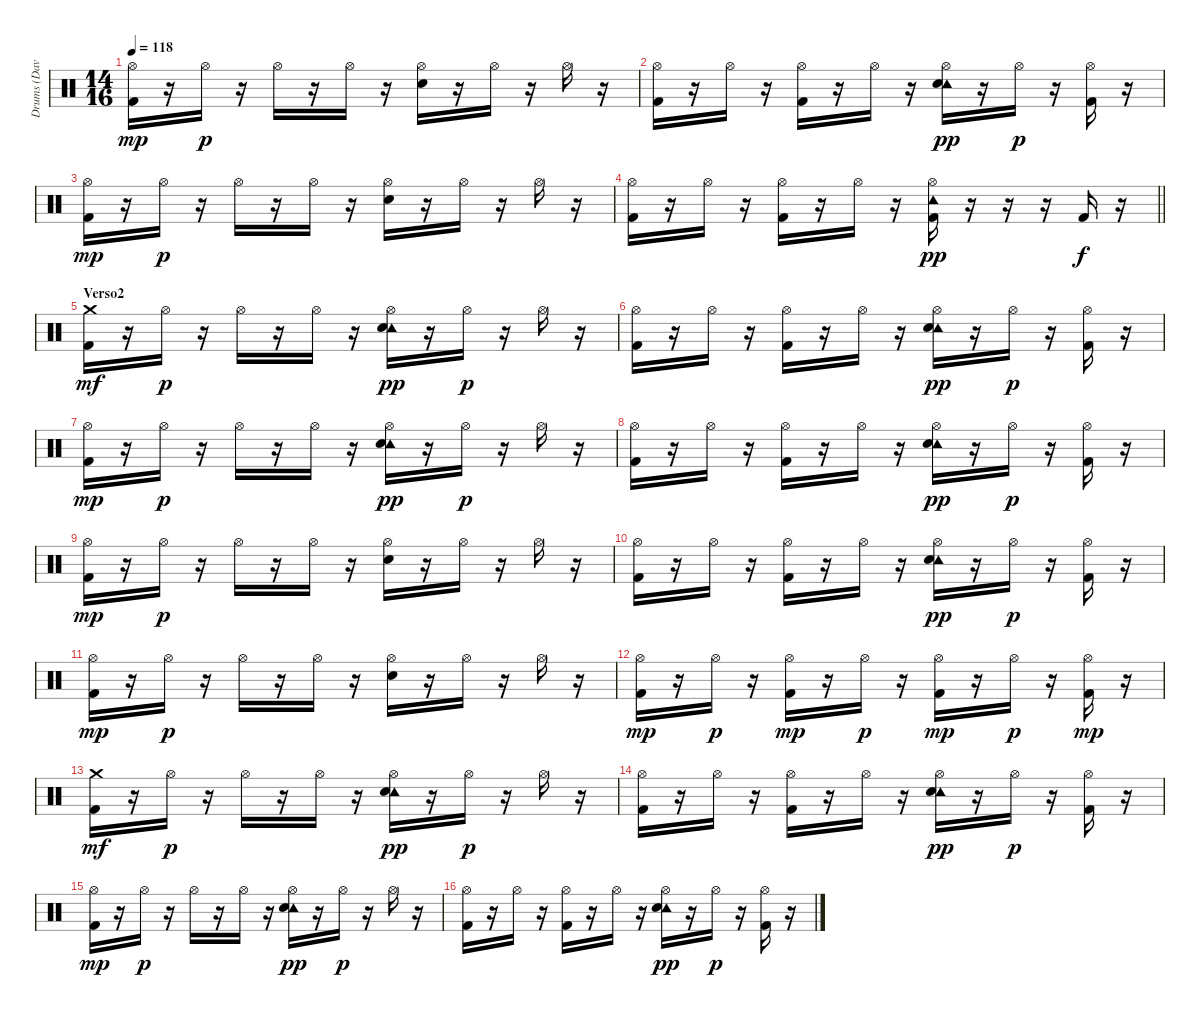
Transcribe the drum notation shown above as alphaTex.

\track ("Drums (Dave Turncrantz)" "Drums (Dav") {instrument percussion}
\staff {score}
\articulation defaults
\ts (14 16)
\tempo 118
\clef neutral
\ks c
("Hi-Hat (open)" "Kick (hit) 2").16{dy mp} r.16 "Hi-Hat (open)".16{dy p} r.16 "Hi-Hat (open)".16 r.16 "Hi-Hat (open)".16 r.16 ("Hi-Hat (open)" "Snare (hit) 2").16 r.16 "Hi-Hat (open)".16 r.16 "Hi-Hat (open)".16 r.16 |
("Hi-Hat (open)" "Kick (hit) 2").16 r.16 "Hi-Hat (open)".16 r.16 ("Hi-Hat (open)" "Kick (hit) 2").16 r.16 "Hi-Hat (open)".16 r.16 ("Hi-Hat (open)" "Tambourine (hit)" "Snare (hit) 2").16{dy pp} r.16 "Hi-Hat (open)".16{dy p} r.16 ("Hi-Hat (open)" "Kick (hit) 2").16 r.16 |
("Hi-Hat (open)" "Kick (hit) 2").16{dy mp} r.16 "Hi-Hat (open)".16{dy p} r.16 "Hi-Hat (open)".16 r.16 "Hi-Hat (open)".16 r.16 ("Hi-Hat (open)" "Snare (hit) 2").16 r.16 "Hi-Hat (open)".16 r.16 "Hi-Hat (open)".16 r.16 |
\barLineRight lightlight
("Hi-Hat (open)" "Kick (hit) 2").16 r.16 "Hi-Hat (open)".16 r.16 ("Hi-Hat (open)" "Kick (hit) 2").16 r.16 "Hi-Hat (open)".16 r.16 ("Hi-Hat (open)" "Tambourine (hit)" "Kick (hit) 2").16{dy pp} r.16 r.16 r.16 "Kick (hit) 2".16{dy f} r.16 |
\section ("" "Verso2")
("Crash medium (hit)" "Kick (hit) 2").16{dy mf} r.16 "Hi-Hat (open)".16{dy p} r.16 "Hi-Hat (open)".16 r.16 "Hi-Hat (open)".16 r.16 ("Hi-Hat (open)" "Tambourine (hit)" "Snare (hit) 2").16{dy pp} r.16 "Hi-Hat (open)".16{dy p} r.16 "Hi-Hat (open)".16 r.16 |
("Hi-Hat (open)" "Kick (hit) 2").16 r.16 "Hi-Hat (open)".16 r.16 ("Hi-Hat (open)" "Kick (hit) 2").16 r.16 "Hi-Hat (open)".16 r.16 ("Hi-Hat (open)" "Tambourine (hit)" "Snare (hit) 2").16{dy pp} r.16 "Hi-Hat (open)".16{dy p} r.16 ("Hi-Hat (open)" "Kick (hit) 2").16 r.16 |
("Hi-Hat (open)" "Kick (hit) 2").16{dy mp} r.16 "Hi-Hat (open)".16{dy p} r.16 "Hi-Hat (open)".16 r.16 "Hi-Hat (open)".16 r.16 ("Hi-Hat (open)" "Tambourine (hit)" "Snare (hit) 2").16{dy pp} r.16 "Hi-Hat (open)".16{dy p} r.16 "Hi-Hat (open)".16 r.16 |
("Hi-Hat (open)" "Kick (hit) 2").16 r.16 "Hi-Hat (open)".16 r.16 ("Hi-Hat (open)" "Kick (hit) 2").16 r.16 "Hi-Hat (open)".16 r.16 ("Hi-Hat (open)" "Tambourine (hit)" "Snare (hit) 2").16{dy pp} r.16 "Hi-Hat (open)".16{dy p} r.16 ("Hi-Hat (open)" "Kick (hit) 2").16 r.16 |
("Hi-Hat (open)" "Kick (hit) 2").16{dy mp} r.16 "Hi-Hat (open)".16{dy p} r.16 "Hi-Hat (open)".16 r.16 "Hi-Hat (open)".16 r.16 ("Hi-Hat (open)" "Snare (hit) 2").16 r.16 "Hi-Hat (open)".16 r.16 "Hi-Hat (open)".16 r.16 |
("Hi-Hat (open)" "Kick (hit) 2").16 r.16 "Hi-Hat (open)".16 r.16 ("Hi-Hat (open)" "Kick (hit) 2").16 r.16 "Hi-Hat (open)".16 r.16 ("Hi-Hat (open)" "Tambourine (hit)" "Snare (hit) 2").16{dy pp} r.16 "Hi-Hat (open)".16{dy p} r.16 ("Hi-Hat (open)" "Kick (hit) 2").16 r.16 |
("Hi-Hat (open)" "Kick (hit) 2").16{dy mp} r.16 "Hi-Hat (open)".16{dy p} r.16 "Hi-Hat (open)".16 r.16 "Hi-Hat (open)".16 r.16 ("Hi-Hat (open)" "Snare (hit) 2").16 r.16 "Hi-Hat (open)".16 r.16 "Hi-Hat (open)".16 r.16 |
("Hi-Hat (open)" "Kick (hit) 2").16{dy mp} r.16 "Hi-Hat (open)".16{dy p} r.16 ("Hi-Hat (open)" "Kick (hit) 2").16{dy mp} r.16 "Hi-Hat (open)".16{dy p} r.16 ("Hi-Hat (open)" "Kick (hit) 2").16{dy mp} r.16 "Hi-Hat (open)".16{dy p} r.16 ("Hi-Hat (open)" "Kick (hit) 2").16{dy mp} r.16 |
("Crash medium (hit)" "Kick (hit) 2").16{dy mf} r.16 "Hi-Hat (open)".16{dy p} r.16 "Hi-Hat (open)".16 r.16 "Hi-Hat (open)".16 r.16 ("Hi-Hat (open)" "Tambourine (hit)" "Snare (hit) 2").16{dy pp} r.16 "Hi-Hat (open)".16{dy p} r.16 "Hi-Hat (open)".16 r.16 |
("Hi-Hat (open)" "Kick (hit) 2").16 r.16 "Hi-Hat (open)".16 r.16 ("Hi-Hat (open)" "Kick (hit) 2").16 r.16 "Hi-Hat (open)".16 r.16 ("Hi-Hat (open)" "Tambourine (hit)" "Snare (hit) 2").16{dy pp} r.16 "Hi-Hat (open)".16{dy p} r.16 ("Hi-Hat (open)" "Kick (hit) 2").16 r.16 |
("Hi-Hat (open)" "Kick (hit) 2").16{dy mp} r.16 "Hi-Hat (open)".16{dy p} r.16 "Hi-Hat (open)".16 r.16 "Hi-Hat (open)".16 r.16 ("Hi-Hat (open)" "Tambourine (hit)" "Snare (hit) 2").16{dy pp} r.16 "Hi-Hat (open)".16{dy p} r.16 "Hi-Hat (open)".16 r.16 |
("Hi-Hat (open)" "Kick (hit) 2").16 r.16 "Hi-Hat (open)".16 r.16 ("Hi-Hat (open)" "Kick (hit) 2").16 r.16 "Hi-Hat (open)".16 r.16 ("Hi-Hat (open)" "Tambourine (hit)" "Snare (hit) 2").16{dy pp} r.16 "Hi-Hat (open)".16{dy p} r.16 ("Hi-Hat (open)" "Kick (hit) 2").16 r.16
